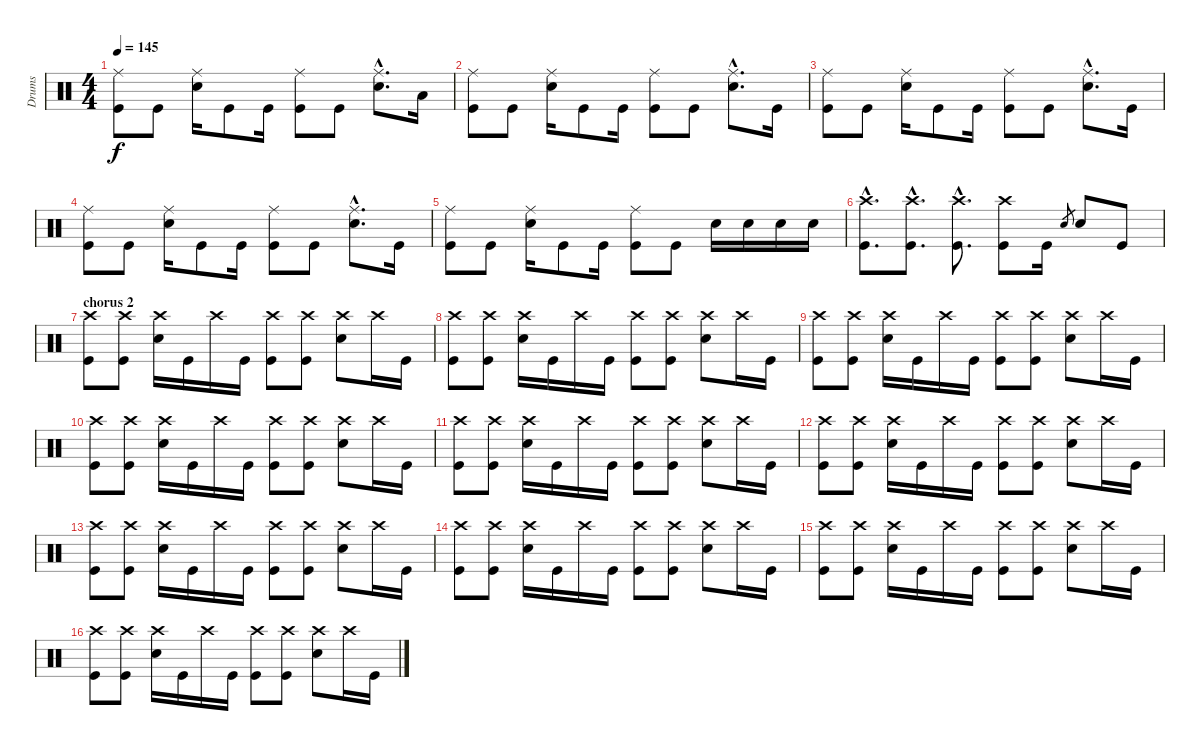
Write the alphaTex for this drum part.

\track ("Drums" "Drums") {instrument percussion}
\staff {score}
\articulation defaults
\ts (4 4)
\tempo 145
\clef neutral
\ks c
("Ride (middle)" "Kick (hit)").8{dy f} "Kick (hit)".8 ("Ride (middle)" "Electric Snare (hit)").16 "Kick (hit)".8 "Kick (hit)".16 ("Ride (middle)" "Kick (hit)").8 "Kick (hit)".8 ("Ride (middle)"{hac} "Electric Snare (hit)"{hac}).8{d} "Low Tom (hit)".16 |
("Ride (middle)" "Kick (hit)").8 "Kick (hit)".8 ("Ride (middle)" "Electric Snare (hit)").16 "Kick (hit)".8 "Kick (hit)".16 ("Ride (middle)" "Kick (hit)").8 "Kick (hit)".8 ("Ride (middle)"{hac} "Electric Snare (hit)"{hac}).8{d} "Kick (hit)".16 |
("Ride (middle)" "Kick (hit)").8 "Kick (hit)".8 ("Ride (middle)" "Electric Snare (hit)").16 "Kick (hit)".8 "Kick (hit)".16 ("Ride (middle)" "Kick (hit)").8 "Kick (hit)".8 ("Ride (middle)"{hac} "Electric Snare (hit)"{hac}).8{d} "Kick (hit)".16 |
("Ride (middle)" "Kick (hit)").8 "Kick (hit)".8 ("Ride (middle)" "Electric Snare (hit)").16 "Kick (hit)".8 "Kick (hit)".16 ("Ride (middle)" "Kick (hit)").8 "Kick (hit)".8 ("Ride (middle)"{hac} "Electric Snare (hit)"{hac}).8{d} "Kick (hit)".16 |
("Ride (middle)" "Kick (hit)").8 "Kick (hit)".8 ("Ride (middle)" "Electric Snare (hit)").16 "Kick (hit)".8 "Kick (hit)".16 ("Ride (middle)" "Kick (hit)").8 "Kick (hit)".8 "Electric Snare (hit)".16 "Electric Snare (hit)".16 "Electric Snare (hit)".16 "Electric Snare (hit)".16 |
("Crash high (hit)"{hac} "Kick (hit)"{hac}).8{d} ("Crash high (hit)"{hac} "Kick (hit)"{hac}).8{d} ("Crash high (hit)"{hac} "Kick (hit)"{hac}).8{d} ("Crash high (hit)" "Kick (hit)").8 "Kick (hit)".16 "Electric Snare (hit)".8{gr} "Electric Snare (hit)".8 "Kick (hit)".8 |
\section ("" "chorus 2")
("Crash high (hit)" "Kick (hit)").8 ("Crash high (hit)" "Kick (hit)").8 ("Crash high (hit)" "Electric Snare (hit)").16 "Kick (hit)".16 "Crash high (hit)".16 "Kick (hit)".16 ("Crash high (hit)" "Kick (hit)").8 ("Crash high (hit)" "Kick (hit)").8 ("Crash high (hit)" "Electric Snare (hit)").8 "Crash high (hit)".16 "Kick (hit)".16 |
("Crash high (hit)" "Kick (hit)").8 ("Crash high (hit)" "Kick (hit)").8 ("Crash high (hit)" "Electric Snare (hit)").16 "Kick (hit)".16 "Crash high (hit)".16 "Kick (hit)".16 ("Crash high (hit)" "Kick (hit)").8 ("Crash high (hit)" "Kick (hit)").8 ("Crash high (hit)" "Electric Snare (hit)").8 "Crash high (hit)".16 "Kick (hit)".16 |
("Crash high (hit)" "Kick (hit)").8 ("Crash high (hit)" "Kick (hit)").8 ("Crash high (hit)" "Electric Snare (hit)").16 "Kick (hit)".16 "Crash high (hit)".16 "Kick (hit)".16 ("Crash high (hit)" "Kick (hit)").8 ("Crash high (hit)" "Kick (hit)").8 ("Crash high (hit)" "Electric Snare (hit)").8 "Crash high (hit)".16 "Kick (hit)".16 |
("Crash high (hit)" "Kick (hit)").8 ("Crash high (hit)" "Kick (hit)").8 ("Crash high (hit)" "Electric Snare (hit)").16 "Kick (hit)".16 "Crash high (hit)".16 "Kick (hit)".16 ("Crash high (hit)" "Kick (hit)").8 ("Crash high (hit)" "Kick (hit)").8 ("Crash high (hit)" "Electric Snare (hit)").8 "Crash high (hit)".16 "Kick (hit)".16 |
("Crash high (hit)" "Kick (hit)").8 ("Crash high (hit)" "Kick (hit)").8 ("Crash high (hit)" "Electric Snare (hit)").16 "Kick (hit)".16 "Crash high (hit)".16 "Kick (hit)".16 ("Crash high (hit)" "Kick (hit)").8 ("Crash high (hit)" "Kick (hit)").8 ("Crash high (hit)" "Electric Snare (hit)").8 "Crash high (hit)".16 "Kick (hit)".16 |
("Crash high (hit)" "Kick (hit)").8 ("Crash high (hit)" "Kick (hit)").8 ("Crash high (hit)" "Electric Snare (hit)").16 "Kick (hit)".16 "Crash high (hit)".16 "Kick (hit)".16 ("Crash high (hit)" "Kick (hit)").8 ("Crash high (hit)" "Kick (hit)").8 ("Crash high (hit)" "Electric Snare (hit)").8 "Crash high (hit)".16 "Kick (hit)".16 |
("Crash high (hit)" "Kick (hit)").8 ("Crash high (hit)" "Kick (hit)").8 ("Crash high (hit)" "Electric Snare (hit)").16 "Kick (hit)".16 "Crash high (hit)".16 "Kick (hit)".16 ("Crash high (hit)" "Kick (hit)").8 ("Crash high (hit)" "Kick (hit)").8 ("Crash high (hit)" "Electric Snare (hit)").8 "Crash high (hit)".16 "Kick (hit)".16 |
("Crash high (hit)" "Kick (hit)").8 ("Crash high (hit)" "Kick (hit)").8 ("Crash high (hit)" "Electric Snare (hit)").16 "Kick (hit)".16 "Crash high (hit)".16 "Kick (hit)".16 ("Crash high (hit)" "Kick (hit)").8 ("Crash high (hit)" "Kick (hit)").8 ("Crash high (hit)" "Electric Snare (hit)").8 "Crash high (hit)".16 "Kick (hit)".16 |
("Crash high (hit)" "Kick (hit)").8 ("Crash high (hit)" "Kick (hit)").8 ("Crash high (hit)" "Electric Snare (hit)").16 "Kick (hit)".16 "Crash high (hit)".16 "Kick (hit)".16 ("Crash high (hit)" "Kick (hit)").8 ("Crash high (hit)" "Kick (hit)").8 ("Crash high (hit)" "Electric Snare (hit)").8 "Crash high (hit)".16 "Kick (hit)".16 |
("Crash high (hit)" "Kick (hit)").8 ("Crash high (hit)" "Kick (hit)").8 ("Crash high (hit)" "Electric Snare (hit)").16 "Kick (hit)".16 "Crash high (hit)".16 "Kick (hit)".16 ("Crash high (hit)" "Kick (hit)").8 ("Crash high (hit)" "Kick (hit)").8 ("Crash high (hit)" "Electric Snare (hit)").8 "Crash high (hit)".16 "Kick (hit)".16
